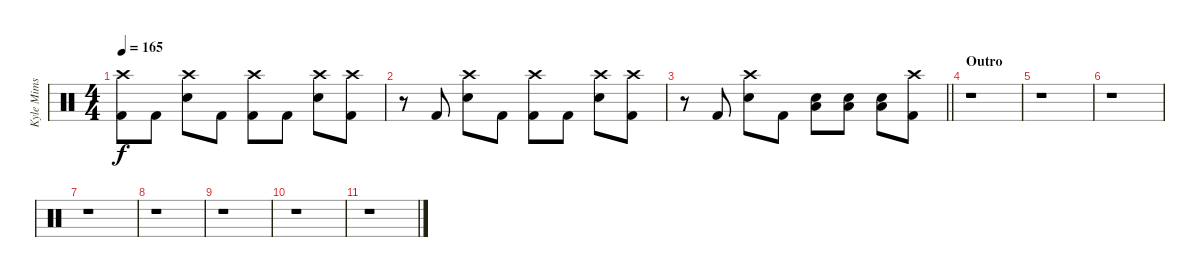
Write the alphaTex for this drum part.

\track ("Kyle Mims" "Kyle Mims") {instrument percussion}
\staff {score}
\articulation defaults
\ts (4 4)
\tempo 165
\clef neutral
\ks c
("Crash high (hit)" "Kick (hit) 2").8{dy f} "Kick (hit) 2".8 ("Crash high (hit)" "Electric Snare (hit)").8 "Kick (hit) 2".8 ("Crash high (hit)" "Kick (hit) 2").8 "Kick (hit) 2".8 ("Crash high (hit)" "Electric Snare (hit)").8 ("Crash high (hit)" "Kick (hit) 2").8 |
r.8 "Kick (hit) 2".8 ("Crash high (hit)" "Electric Snare (hit)").8 "Kick (hit) 2".8 ("Crash high (hit)" "Kick (hit) 2").8 "Kick (hit) 2".8 ("Crash high (hit)" "Electric Snare (hit)").8 ("Crash high (hit)" "Kick (hit) 2").8 |
\barLineRight lightlight
r.8 "Kick (hit) 2".8 ("Crash high (hit)" "Electric Snare (hit)").8 "Kick (hit) 2".8 ("Electric Snare (hit)" "Low Tom (hit)").8 ("Electric Snare (hit)" "Low Tom (hit)").8 ("Electric Snare (hit)" "Low Tom (hit)").8 ("Crash high (hit)" "Kick (hit) 2").8 |
\section ("" "Outro")
r.1 |
r.1 |
r.1 |
r.1 |
r.1 |
r.1 |
r.1 |
r.1
